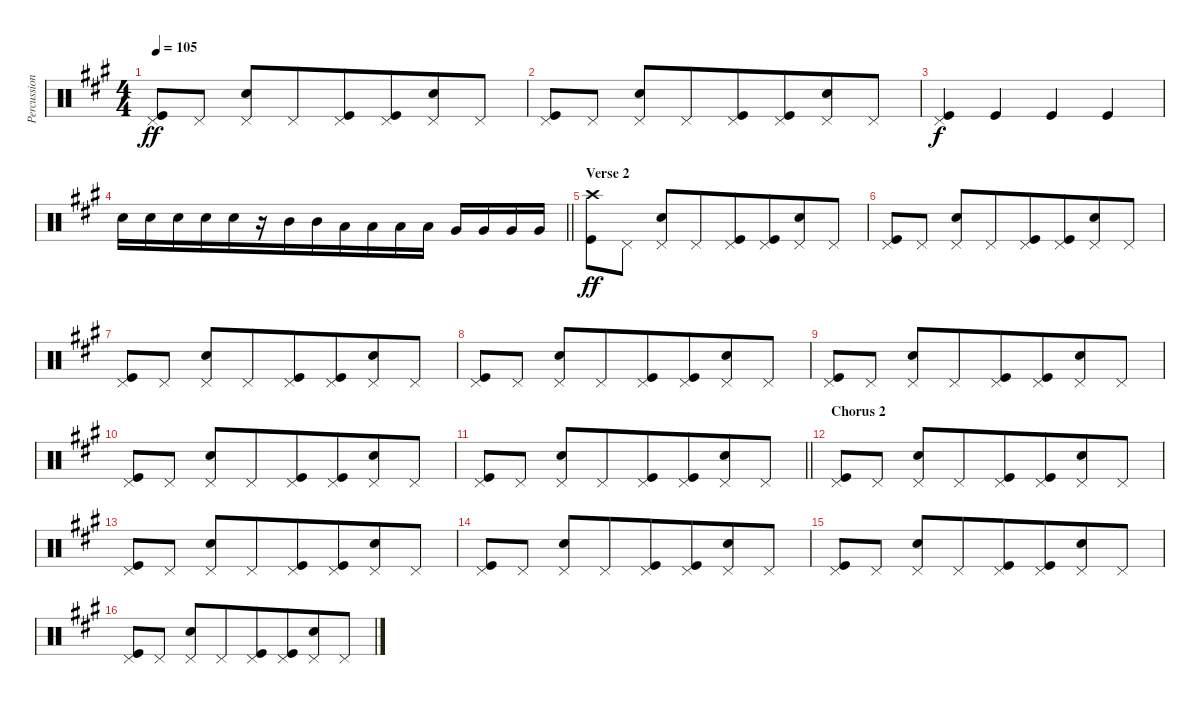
\track ("Percussion" "Percussion") {instrument percussion}
\staff {score}
\articulation defaults
\ts (4 4)
\tempo 105
\clef neutral
\ks a
("Kick (hit)" "Pedal Hi-Hat (hit)").8{dy ff beam merge} "Pedal Hi-Hat (hit)".8 ("Electric Snare (hit)" "Pedal Hi-Hat (hit)").8 "Pedal Hi-Hat (hit)".8{beam merge} ("Kick (hit)" "Pedal Hi-Hat (hit)").8{beam merge} ("Kick (hit)" "Pedal Hi-Hat (hit)").8{beam merge} ("Electric Snare (hit)" "Pedal Hi-Hat (hit)").8{beam merge} "Pedal Hi-Hat (hit)".8 |
("Kick (hit)" "Pedal Hi-Hat (hit)").8{beam merge} "Pedal Hi-Hat (hit)".8 ("Electric Snare (hit)" "Pedal Hi-Hat (hit)").8 "Pedal Hi-Hat (hit)".8{beam merge} ("Kick (hit)" "Pedal Hi-Hat (hit)").8{beam merge} ("Kick (hit)" "Pedal Hi-Hat (hit)").8{beam merge} ("Electric Snare (hit)" "Pedal Hi-Hat (hit)").8{beam merge} "Pedal Hi-Hat (hit)".8 |
("Kick (hit)" "Pedal Hi-Hat (hit)").4{dy f beam merge} "Kick (hit)".4 "Kick (hit)".4{beam merge} "Kick (hit)".4 |
\barLineRight lightlight "Electric Snare (hit)".16{beam merge} "Electric Snare (hit)".16 "Electric Snare (hit)".16 "Electric Snare (hit)".16{beam merge} "Electric Snare (hit)".16{beam merge}
r.16{beam merge} "Mid Tom (hit)".16 "Mid Tom (hit)".16{beam merge} "Low Tom (hit)".16{beam merge} "Low Tom (hit)".16 "Low Tom (hit)".16 "Low Tom (hit)".16 "Very Low Tom (hit)".16 "Very Low Tom (hit)".16 "Very Low Tom (hit)".16 "Very Low Tom (hit)".16 |
\section ("" "Verse 2")
("Kick (hit)" "Crash high (hit)").8{dy ff beam merge} "Pedal Hi-Hat (hit)".8 ("Electric Snare (hit)" "Pedal Hi-Hat (hit)").8 "Pedal Hi-Hat (hit)".8{beam merge} ("Kick (hit)" "Pedal Hi-Hat (hit)").8{beam merge} ("Kick (hit)" "Pedal Hi-Hat (hit)").8{beam merge} ("Electric Snare (hit)" "Pedal Hi-Hat (hit)").8{beam merge} "Pedal Hi-Hat (hit)".8 |
("Kick (hit)" "Pedal Hi-Hat (hit)").8{beam merge} "Pedal Hi-Hat (hit)".8 ("Electric Snare (hit)" "Pedal Hi-Hat (hit)").8 "Pedal Hi-Hat (hit)".8{beam merge} ("Kick (hit)" "Pedal Hi-Hat (hit)").8{beam merge} ("Kick (hit)" "Pedal Hi-Hat (hit)").8{beam merge} ("Electric Snare (hit)" "Pedal Hi-Hat (hit)").8{beam merge} "Pedal Hi-Hat (hit)".8 |
("Kick (hit)" "Pedal Hi-Hat (hit)").8{beam merge} "Pedal Hi-Hat (hit)".8 ("Electric Snare (hit)" "Pedal Hi-Hat (hit)").8 "Pedal Hi-Hat (hit)".8{beam merge} ("Kick (hit)" "Pedal Hi-Hat (hit)").8{beam merge} ("Kick (hit)" "Pedal Hi-Hat (hit)").8{beam merge} ("Electric Snare (hit)" "Pedal Hi-Hat (hit)").8{beam merge} "Pedal Hi-Hat (hit)".8 |
("Kick (hit)" "Pedal Hi-Hat (hit)").8{beam merge} "Pedal Hi-Hat (hit)".8 ("Electric Snare (hit)" "Pedal Hi-Hat (hit)").8 "Pedal Hi-Hat (hit)".8{beam merge} ("Kick (hit)" "Pedal Hi-Hat (hit)").8{beam merge} ("Kick (hit)" "Pedal Hi-Hat (hit)").8{beam merge} ("Electric Snare (hit)" "Pedal Hi-Hat (hit)").8{beam merge} "Pedal Hi-Hat (hit)".8 |
("Kick (hit)" "Pedal Hi-Hat (hit)").8{beam merge} "Pedal Hi-Hat (hit)".8 ("Electric Snare (hit)" "Pedal Hi-Hat (hit)").8 "Pedal Hi-Hat (hit)".8{beam merge} ("Kick (hit)" "Pedal Hi-Hat (hit)").8{beam merge} ("Kick (hit)" "Pedal Hi-Hat (hit)").8{beam merge} ("Electric Snare (hit)" "Pedal Hi-Hat (hit)").8{beam merge} "Pedal Hi-Hat (hit)".8 |
("Kick (hit)" "Pedal Hi-Hat (hit)").8{beam merge} "Pedal Hi-Hat (hit)".8 ("Electric Snare (hit)" "Pedal Hi-Hat (hit)").8 "Pedal Hi-Hat (hit)".8{beam merge} ("Kick (hit)" "Pedal Hi-Hat (hit)").8{beam merge} ("Kick (hit)" "Pedal Hi-Hat (hit)").8{beam merge} ("Electric Snare (hit)" "Pedal Hi-Hat (hit)").8{beam merge} "Pedal Hi-Hat (hit)".8 |
\barLineRight lightlight
("Kick (hit)" "Pedal Hi-Hat (hit)").8{beam merge} "Pedal Hi-Hat (hit)".8 ("Electric Snare (hit)" "Pedal Hi-Hat (hit)").8 "Pedal Hi-Hat (hit)".8{beam merge} ("Kick (hit)" "Pedal Hi-Hat (hit)").8{beam merge} ("Kick (hit)" "Pedal Hi-Hat (hit)").8{beam merge} ("Electric Snare (hit)" "Pedal Hi-Hat (hit)").8{beam merge} "Pedal Hi-Hat (hit)".8 |
\section ("" "Chorus 2")
("Kick (hit)" "Pedal Hi-Hat (hit)").8{beam merge} "Pedal Hi-Hat (hit)".8 ("Electric Snare (hit)" "Pedal Hi-Hat (hit)").8 "Pedal Hi-Hat (hit)".8{beam merge} ("Kick (hit)" "Pedal Hi-Hat (hit)").8{beam merge} ("Kick (hit)" "Pedal Hi-Hat (hit)").8{beam merge} ("Electric Snare (hit)" "Pedal Hi-Hat (hit)").8{beam merge} "Pedal Hi-Hat (hit)".8 |
("Kick (hit)" "Pedal Hi-Hat (hit)").8{beam merge} "Pedal Hi-Hat (hit)".8 ("Electric Snare (hit)" "Pedal Hi-Hat (hit)").8 "Pedal Hi-Hat (hit)".8{beam merge} ("Kick (hit)" "Pedal Hi-Hat (hit)").8{beam merge} ("Kick (hit)" "Pedal Hi-Hat (hit)").8{beam merge} ("Electric Snare (hit)" "Pedal Hi-Hat (hit)").8{beam merge} "Pedal Hi-Hat (hit)".8 |
("Kick (hit)" "Pedal Hi-Hat (hit)").8{beam merge} "Pedal Hi-Hat (hit)".8 ("Electric Snare (hit)" "Pedal Hi-Hat (hit)").8 "Pedal Hi-Hat (hit)".8{beam merge} ("Kick (hit)" "Pedal Hi-Hat (hit)").8{beam merge} ("Kick (hit)" "Pedal Hi-Hat (hit)").8{beam merge} ("Electric Snare (hit)" "Pedal Hi-Hat (hit)").8{beam merge} "Pedal Hi-Hat (hit)".8 |
("Kick (hit)" "Pedal Hi-Hat (hit)").8{beam merge} "Pedal Hi-Hat (hit)".8 ("Electric Snare (hit)" "Pedal Hi-Hat (hit)").8 "Pedal Hi-Hat (hit)".8{beam merge} ("Kick (hit)" "Pedal Hi-Hat (hit)").8{beam merge} ("Kick (hit)" "Pedal Hi-Hat (hit)").8{beam merge} ("Electric Snare (hit)" "Pedal Hi-Hat (hit)").8{beam merge} "Pedal Hi-Hat (hit)".8 |
("Kick (hit)" "Pedal Hi-Hat (hit)").8{beam merge} "Pedal Hi-Hat (hit)".8 ("Electric Snare (hit)" "Pedal Hi-Hat (hit)").8 "Pedal Hi-Hat (hit)".8{beam merge} ("Kick (hit)" "Pedal Hi-Hat (hit)").8{beam merge} ("Kick (hit)" "Pedal Hi-Hat (hit)").8{beam merge} ("Electric Snare (hit)" "Pedal Hi-Hat (hit)").8{beam merge} "Pedal Hi-Hat (hit)".8
